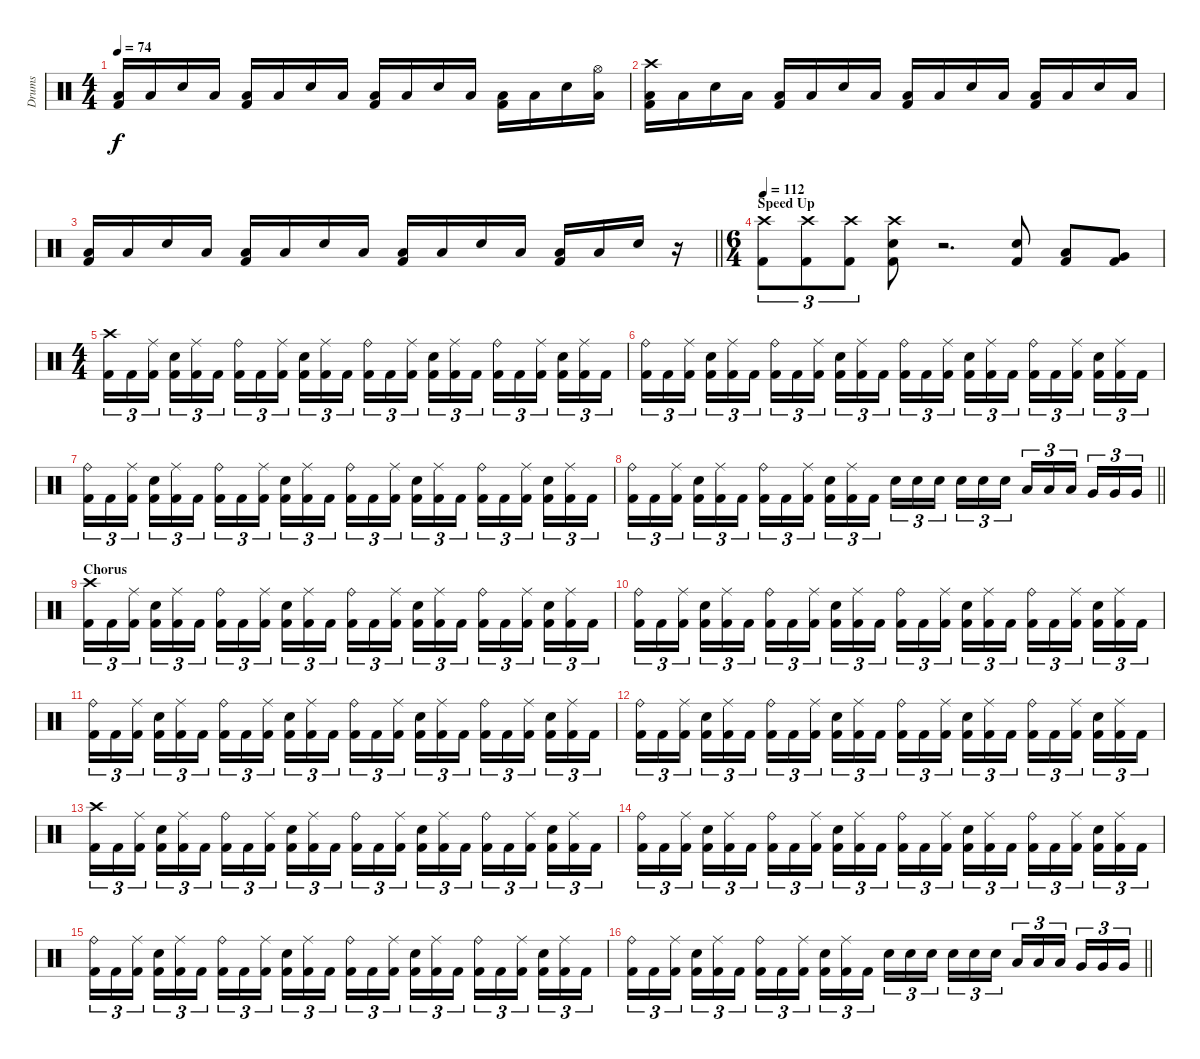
\track ("Drums" "Drums") {instrument percussion}
\staff {score}
\articulation defaults
\ts (4 4)
\tempo 74
\clef neutral
\ks c
("Low Floor Tom (hit)" "Kick (hit) 2").16{dy f} "Low Floor Tom (hit)".16 "Snare (hit) 2".16 "Low Floor Tom (hit)".16 ("Low Floor Tom (hit)" "Kick (hit) 2").16 "Low Floor Tom (hit)".16 "Snare (hit) 2".16 "Low Floor Tom (hit)".16 ("Low Floor Tom (hit)" "Kick (hit) 2").16 "Low Floor Tom (hit)".16 "Snare (hit) 2".16 "Low Floor Tom (hit)".16 ("Low Floor Tom (hit)" "Kick (hit) 2").16 "Low Floor Tom (hit)".16 "Snare (hit) 2".16 ("Hi-Hat (open)" "Low Floor Tom (hit)").16 |
("Crash high (hit)" "Low Floor Tom (hit)" "Kick (hit) 2").16 "Low Floor Tom (hit)".16 "Snare (hit) 2".16 "Low Floor Tom (hit)".16 ("Low Floor Tom (hit)" "Kick (hit) 2").16 "Low Floor Tom (hit)".16 "Snare (hit) 2".16 "Low Floor Tom (hit)".16 ("Low Floor Tom (hit)" "Kick (hit) 2").16 "Low Floor Tom (hit)".16 "Snare (hit) 2".16 "Low Floor Tom (hit)".16 ("Low Floor Tom (hit)" "Kick (hit) 2").16 "Low Floor Tom (hit)".16 "Snare (hit) 2".16 "Low Floor Tom (hit)".16 |
\barLineRight lightlight
("Low Floor Tom (hit)" "Kick (hit) 2").16 "Low Floor Tom (hit)".16 "Snare (hit) 2".16 "Low Floor Tom (hit)".16 ("Low Floor Tom (hit)" "Kick (hit) 2").16 "Low Floor Tom (hit)".16 "Snare (hit) 2".16 "Low Floor Tom (hit)".16 ("Low Floor Tom (hit)" "Kick (hit) 2").16 "Low Floor Tom (hit)".16 "Snare (hit) 2".16 "Low Floor Tom (hit)".16 ("Low Floor Tom (hit)" "Kick (hit) 2").16 "Low Floor Tom (hit)".16 "Snare (hit) 2".16 r.16 |
\ts (6 4)
\section ("" "Speed Up")
\tempo 112
("Crash high (hit)" "Kick (hit) 2").8{tu (3 2)} ("Crash high (hit)" "Kick (hit) 2").8{tu (3 2)} ("Crash high (hit)" "Kick (hit) 2").8{tu (3 2)} ("Crash high (hit)" "Snare (hit) 2" "Kick (hit) 2").8 r.2{d} ("Snare (hit) 2" "Kick (hit) 2").8 ("Low Tom (hit)" "Kick (hit) 2").8 ("Very Low Tom (hit)" "Kick (hit) 2").8 |
\ts (4 4)
("Crash high (hit)" "Kick (hit) 2").16{tu (3 2)} "Kick (hit) 2".16{tu (3 2)} ("Ride (middle)" "Kick (hit) 2").16{tu (3 2) beam splitsecondary} ("Snare (hit) 2" "Kick (hit) 2").16{tu (3 2)} ("Ride (middle)" "Kick (hit) 2").16{tu (3 2)} "Kick (hit) 2".16{tu (3 2)} ("Ride (bell)" "Kick (hit) 2").16{tu (3 2)} "Kick (hit) 2".16{tu (3 2)} ("Ride (middle)" "Kick (hit) 2").16{tu (3 2) beam splitsecondary} ("Snare (hit) 2" "Kick (hit) 2").16{tu (3 2)} ("Ride (middle)" "Kick (hit) 2").16{tu (3 2)} "Kick (hit) 2".16{tu (3 2)} ("Ride (bell)" "Kick (hit) 2").16{tu (3 2)} "Kick (hit) 2".16{tu (3 2)} ("Ride (middle)" "Kick (hit) 2").16{tu (3 2) beam splitsecondary} ("Snare (hit) 2" "Kick (hit) 2").16{tu (3 2)} ("Ride (middle)" "Kick (hit) 2").16{tu (3 2)} "Kick (hit) 2".16{tu (3 2)} ("Ride (bell)" "Kick (hit) 2").16{tu (3 2)} "Kick (hit) 2".16{tu (3 2)} ("Ride (middle)" "Kick (hit) 2").16{tu (3 2) beam splitsecondary} ("Snare (hit) 2" "Kick (hit) 2").16{tu (3 2)} ("Ride (middle)" "Kick (hit) 2").16{tu (3 2)} "Kick (hit) 2".16{tu (3 2)} |
("Ride (bell)" "Kick (hit) 2").16{tu (3 2)} "Kick (hit) 2".16{tu (3 2)} ("Ride (middle)" "Kick (hit) 2").16{tu (3 2) beam splitsecondary} ("Snare (hit) 2" "Kick (hit) 2").16{tu (3 2)} ("Ride (middle)" "Kick (hit) 2").16{tu (3 2)} "Kick (hit) 2".16{tu (3 2)} ("Ride (bell)" "Kick (hit) 2").16{tu (3 2)} "Kick (hit) 2".16{tu (3 2)} ("Ride (middle)" "Kick (hit) 2").16{tu (3 2) beam splitsecondary} ("Snare (hit) 2" "Kick (hit) 2").16{tu (3 2)} ("Ride (middle)" "Kick (hit) 2").16{tu (3 2)} "Kick (hit) 2".16{tu (3 2)} ("Ride (bell)" "Kick (hit) 2").16{tu (3 2)} "Kick (hit) 2".16{tu (3 2)} ("Ride (middle)" "Kick (hit) 2").16{tu (3 2) beam splitsecondary} ("Snare (hit) 2" "Kick (hit) 2").16{tu (3 2)} ("Ride (middle)" "Kick (hit) 2").16{tu (3 2)} "Kick (hit) 2".16{tu (3 2)} ("Ride (bell)" "Kick (hit) 2").16{tu (3 2)} "Kick (hit) 2".16{tu (3 2)} ("Ride (middle)" "Kick (hit) 2").16{tu (3 2) beam splitsecondary} ("Snare (hit) 2" "Kick (hit) 2").16{tu (3 2)} ("Ride (middle)" "Kick (hit) 2").16{tu (3 2)} "Kick (hit) 2".16{tu (3 2)} |
("Ride (bell)" "Kick (hit) 2").16{tu (3 2)} "Kick (hit) 2".16{tu (3 2)} ("Ride (middle)" "Kick (hit) 2").16{tu (3 2) beam splitsecondary} ("Snare (hit) 2" "Kick (hit) 2").16{tu (3 2)} ("Ride (middle)" "Kick (hit) 2").16{tu (3 2)} "Kick (hit) 2".16{tu (3 2)} ("Ride (bell)" "Kick (hit) 2").16{tu (3 2)} "Kick (hit) 2".16{tu (3 2)} ("Ride (middle)" "Kick (hit) 2").16{tu (3 2) beam splitsecondary} ("Snare (hit) 2" "Kick (hit) 2").16{tu (3 2)} ("Ride (middle)" "Kick (hit) 2").16{tu (3 2)} "Kick (hit) 2".16{tu (3 2)} ("Ride (bell)" "Kick (hit) 2").16{tu (3 2)} "Kick (hit) 2".16{tu (3 2)} ("Ride (middle)" "Kick (hit) 2").16{tu (3 2) beam splitsecondary} ("Snare (hit) 2" "Kick (hit) 2").16{tu (3 2)} ("Ride (middle)" "Kick (hit) 2").16{tu (3 2)} "Kick (hit) 2".16{tu (3 2)} ("Ride (bell)" "Kick (hit) 2").16{tu (3 2)} "Kick (hit) 2".16{tu (3 2)} ("Ride (middle)" "Kick (hit) 2").16{tu (3 2) beam splitsecondary} ("Snare (hit) 2" "Kick (hit) 2").16{tu (3 2)} ("Ride (middle)" "Kick (hit) 2").16{tu (3 2)} "Kick (hit) 2".16{tu (3 2)} |
\barLineRight lightlight
("Ride (bell)" "Kick (hit) 2").16{tu (3 2)} "Kick (hit) 2".16{tu (3 2)} ("Ride (middle)" "Kick (hit) 2").16{tu (3 2) beam splitsecondary} ("Snare (hit) 2" "Kick (hit) 2").16{tu (3 2)} ("Ride (middle)" "Kick (hit) 2").16{tu (3 2)} "Kick (hit) 2".16{tu (3 2)} ("Ride (bell)" "Kick (hit) 2").16{tu (3 2)} "Kick (hit) 2".16{tu (3 2)} ("Ride (middle)" "Kick (hit) 2").16{tu (3 2) beam splitsecondary} ("Snare (hit) 2" "Kick (hit) 2").16{tu (3 2)} ("Ride (middle)" "Kick (hit) 2").16{tu (3 2)} "Kick (hit) 2".16{tu (3 2)} "Snare (hit) 2".16{tu (3 2)} "Snare (hit) 2".16{tu (3 2)} "Snare (hit) 2".16{tu (3 2) beam splitsecondary} "Snare (hit) 2".16{tu (3 2)} "Snare (hit) 2".16{tu (3 2)} "Snare (hit) 2".16{tu (3 2)} "Low Tom (hit)".16{tu (3 2)} "Low Tom (hit)".16{tu (3 2)} "Low Tom (hit)".16{tu (3 2) beam splitsecondary} "Very Low Tom (hit)".16{tu (3 2)} "Very Low Tom (hit)".16{tu (3 2)} "Very Low Tom (hit)".16{tu (3 2)} |
\section ("" "Chorus")
("Crash high (hit)" "Kick (hit) 2").16{tu (3 2)} "Kick (hit) 2".16{tu (3 2)} ("Ride (middle)" "Kick (hit) 2").16{tu (3 2) beam splitsecondary} ("Snare (hit) 2" "Kick (hit) 2").16{tu (3 2)} ("Ride (middle)" "Kick (hit) 2").16{tu (3 2)} "Kick (hit) 2".16{tu (3 2)} ("Ride (bell)" "Kick (hit) 2").16{tu (3 2)} "Kick (hit) 2".16{tu (3 2)} ("Ride (middle)" "Kick (hit) 2").16{tu (3 2) beam splitsecondary} ("Snare (hit) 2" "Kick (hit) 2").16{tu (3 2)} ("Ride (middle)" "Kick (hit) 2").16{tu (3 2)} "Kick (hit) 2".16{tu (3 2)} ("Ride (bell)" "Kick (hit) 2").16{tu (3 2)} "Kick (hit) 2".16{tu (3 2)} ("Ride (middle)" "Kick (hit) 2").16{tu (3 2) beam splitsecondary} ("Snare (hit) 2" "Kick (hit) 2").16{tu (3 2)} ("Ride (middle)" "Kick (hit) 2").16{tu (3 2)} "Kick (hit) 2".16{tu (3 2)} ("Ride (bell)" "Kick (hit) 2").16{tu (3 2)} "Kick (hit) 2".16{tu (3 2)} ("Ride (middle)" "Kick (hit) 2").16{tu (3 2) beam splitsecondary} ("Snare (hit) 2" "Kick (hit) 2").16{tu (3 2)} ("Ride (middle)" "Kick (hit) 2").16{tu (3 2)} "Kick (hit) 2".16{tu (3 2)} |
("Ride (bell)" "Kick (hit) 2").16{tu (3 2)} "Kick (hit) 2".16{tu (3 2)} ("Ride (middle)" "Kick (hit) 2").16{tu (3 2) beam splitsecondary} ("Snare (hit) 2" "Kick (hit) 2").16{tu (3 2)} ("Ride (middle)" "Kick (hit) 2").16{tu (3 2)} "Kick (hit) 2".16{tu (3 2)} ("Ride (bell)" "Kick (hit) 2").16{tu (3 2)} "Kick (hit) 2".16{tu (3 2)} ("Ride (middle)" "Kick (hit) 2").16{tu (3 2) beam splitsecondary} ("Snare (hit) 2" "Kick (hit) 2").16{tu (3 2)} ("Ride (middle)" "Kick (hit) 2").16{tu (3 2)} "Kick (hit) 2".16{tu (3 2)} ("Ride (bell)" "Kick (hit) 2").16{tu (3 2)} "Kick (hit) 2".16{tu (3 2)} ("Ride (middle)" "Kick (hit) 2").16{tu (3 2) beam splitsecondary} ("Snare (hit) 2" "Kick (hit) 2").16{tu (3 2)} ("Ride (middle)" "Kick (hit) 2").16{tu (3 2)} "Kick (hit) 2".16{tu (3 2)} ("Ride (bell)" "Kick (hit) 2").16{tu (3 2)} "Kick (hit) 2".16{tu (3 2)} ("Ride (middle)" "Kick (hit) 2").16{tu (3 2) beam splitsecondary} ("Snare (hit) 2" "Kick (hit) 2").16{tu (3 2)} ("Ride (middle)" "Kick (hit) 2").16{tu (3 2)} "Kick (hit) 2".16{tu (3 2)} |
("Ride (bell)" "Kick (hit) 2").16{tu (3 2)} "Kick (hit) 2".16{tu (3 2)} ("Ride (middle)" "Kick (hit) 2").16{tu (3 2) beam splitsecondary} ("Snare (hit) 2" "Kick (hit) 2").16{tu (3 2)} ("Ride (middle)" "Kick (hit) 2").16{tu (3 2)} "Kick (hit) 2".16{tu (3 2)} ("Ride (bell)" "Kick (hit) 2").16{tu (3 2)} "Kick (hit) 2".16{tu (3 2)} ("Ride (middle)" "Kick (hit) 2").16{tu (3 2) beam splitsecondary} ("Snare (hit) 2" "Kick (hit) 2").16{tu (3 2)} ("Ride (middle)" "Kick (hit) 2").16{tu (3 2)} "Kick (hit) 2".16{tu (3 2)} ("Ride (bell)" "Kick (hit) 2").16{tu (3 2)} "Kick (hit) 2".16{tu (3 2)} ("Ride (middle)" "Kick (hit) 2").16{tu (3 2) beam splitsecondary} ("Snare (hit) 2" "Kick (hit) 2").16{tu (3 2)} ("Ride (middle)" "Kick (hit) 2").16{tu (3 2)} "Kick (hit) 2".16{tu (3 2)} ("Ride (bell)" "Kick (hit) 2").16{tu (3 2)} "Kick (hit) 2".16{tu (3 2)} ("Ride (middle)" "Kick (hit) 2").16{tu (3 2) beam splitsecondary} ("Snare (hit) 2" "Kick (hit) 2").16{tu (3 2)} ("Ride (middle)" "Kick (hit) 2").16{tu (3 2)} "Kick (hit) 2".16{tu (3 2)} |
("Ride (bell)" "Kick (hit) 2").16{tu (3 2)} "Kick (hit) 2".16{tu (3 2)} ("Ride (middle)" "Kick (hit) 2").16{tu (3 2) beam splitsecondary} ("Snare (hit) 2" "Kick (hit) 2").16{tu (3 2)} ("Ride (middle)" "Kick (hit) 2").16{tu (3 2)} "Kick (hit) 2".16{tu (3 2)} ("Ride (bell)" "Kick (hit) 2").16{tu (3 2)} "Kick (hit) 2".16{tu (3 2)} ("Ride (middle)" "Kick (hit) 2").16{tu (3 2) beam splitsecondary} ("Snare (hit) 2" "Kick (hit) 2").16{tu (3 2)} ("Ride (middle)" "Kick (hit) 2").16{tu (3 2)} "Kick (hit) 2".16{tu (3 2)} ("Ride (bell)" "Kick (hit) 2").16{tu (3 2)} "Kick (hit) 2".16{tu (3 2)} ("Ride (middle)" "Kick (hit) 2").16{tu (3 2) beam splitsecondary} ("Snare (hit) 2" "Kick (hit) 2").16{tu (3 2)} ("Ride (middle)" "Kick (hit) 2").16{tu (3 2)} "Kick (hit) 2".16{tu (3 2)} ("Ride (bell)" "Kick (hit) 2").16{tu (3 2)} "Kick (hit) 2".16{tu (3 2)} ("Ride (middle)" "Kick (hit) 2").16{tu (3 2) beam splitsecondary} ("Snare (hit) 2" "Kick (hit) 2").16{tu (3 2)} ("Ride (middle)" "Kick (hit) 2").16{tu (3 2)} "Kick (hit) 2".16{tu (3 2)} |
("Crash high (hit)" "Kick (hit) 2").16{tu (3 2)} "Kick (hit) 2".16{tu (3 2)} ("Ride (middle)" "Kick (hit) 2").16{tu (3 2) beam splitsecondary} ("Snare (hit) 2" "Kick (hit) 2").16{tu (3 2)} ("Ride (middle)" "Kick (hit) 2").16{tu (3 2)} "Kick (hit) 2".16{tu (3 2)} ("Ride (bell)" "Kick (hit) 2").16{tu (3 2)} "Kick (hit) 2".16{tu (3 2)} ("Ride (middle)" "Kick (hit) 2").16{tu (3 2) beam splitsecondary} ("Snare (hit) 2" "Kick (hit) 2").16{tu (3 2)} ("Ride (middle)" "Kick (hit) 2").16{tu (3 2)} "Kick (hit) 2".16{tu (3 2)} ("Ride (bell)" "Kick (hit) 2").16{tu (3 2)} "Kick (hit) 2".16{tu (3 2)} ("Ride (middle)" "Kick (hit) 2").16{tu (3 2) beam splitsecondary} ("Snare (hit) 2" "Kick (hit) 2").16{tu (3 2)} ("Ride (middle)" "Kick (hit) 2").16{tu (3 2)} "Kick (hit) 2".16{tu (3 2)} ("Ride (bell)" "Kick (hit) 2").16{tu (3 2)} "Kick (hit) 2".16{tu (3 2)} ("Ride (middle)" "Kick (hit) 2").16{tu (3 2) beam splitsecondary} ("Snare (hit) 2" "Kick (hit) 2").16{tu (3 2)} ("Ride (middle)" "Kick (hit) 2").16{tu (3 2)} "Kick (hit) 2".16{tu (3 2)} |
("Ride (bell)" "Kick (hit) 2").16{tu (3 2)} "Kick (hit) 2".16{tu (3 2)} ("Ride (middle)" "Kick (hit) 2").16{tu (3 2) beam splitsecondary} ("Snare (hit) 2" "Kick (hit) 2").16{tu (3 2)} ("Ride (middle)" "Kick (hit) 2").16{tu (3 2)} "Kick (hit) 2".16{tu (3 2)} ("Ride (bell)" "Kick (hit) 2").16{tu (3 2)} "Kick (hit) 2".16{tu (3 2)} ("Ride (middle)" "Kick (hit) 2").16{tu (3 2) beam splitsecondary} ("Snare (hit) 2" "Kick (hit) 2").16{tu (3 2)} ("Ride (middle)" "Kick (hit) 2").16{tu (3 2)} "Kick (hit) 2".16{tu (3 2)} ("Ride (bell)" "Kick (hit) 2").16{tu (3 2)} "Kick (hit) 2".16{tu (3 2)} ("Ride (middle)" "Kick (hit) 2").16{tu (3 2) beam splitsecondary} ("Snare (hit) 2" "Kick (hit) 2").16{tu (3 2)} ("Ride (middle)" "Kick (hit) 2").16{tu (3 2)} "Kick (hit) 2".16{tu (3 2)} ("Ride (bell)" "Kick (hit) 2").16{tu (3 2)} "Kick (hit) 2".16{tu (3 2)} ("Ride (middle)" "Kick (hit) 2").16{tu (3 2) beam splitsecondary} ("Snare (hit) 2" "Kick (hit) 2").16{tu (3 2)} ("Ride (middle)" "Kick (hit) 2").16{tu (3 2)} "Kick (hit) 2".16{tu (3 2)} |
("Ride (bell)" "Kick (hit) 2").16{tu (3 2)} "Kick (hit) 2".16{tu (3 2)} ("Ride (middle)" "Kick (hit) 2").16{tu (3 2) beam splitsecondary} ("Snare (hit) 2" "Kick (hit) 2").16{tu (3 2)} ("Ride (middle)" "Kick (hit) 2").16{tu (3 2)} "Kick (hit) 2".16{tu (3 2)} ("Ride (bell)" "Kick (hit) 2").16{tu (3 2)} "Kick (hit) 2".16{tu (3 2)} ("Ride (middle)" "Kick (hit) 2").16{tu (3 2) beam splitsecondary} ("Snare (hit) 2" "Kick (hit) 2").16{tu (3 2)} ("Ride (middle)" "Kick (hit) 2").16{tu (3 2)} "Kick (hit) 2".16{tu (3 2)} ("Ride (bell)" "Kick (hit) 2").16{tu (3 2)} "Kick (hit) 2".16{tu (3 2)} ("Ride (middle)" "Kick (hit) 2").16{tu (3 2) beam splitsecondary} ("Snare (hit) 2" "Kick (hit) 2").16{tu (3 2)} ("Ride (middle)" "Kick (hit) 2").16{tu (3 2)} "Kick (hit) 2".16{tu (3 2)} ("Ride (bell)" "Kick (hit) 2").16{tu (3 2)} "Kick (hit) 2".16{tu (3 2)} ("Ride (middle)" "Kick (hit) 2").16{tu (3 2) beam splitsecondary} ("Snare (hit) 2" "Kick (hit) 2").16{tu (3 2)} ("Ride (middle)" "Kick (hit) 2").16{tu (3 2)} "Kick (hit) 2".16{tu (3 2)} |
\barLineRight lightlight
("Ride (bell)" "Kick (hit) 2").16{tu (3 2)} "Kick (hit) 2".16{tu (3 2)} ("Ride (middle)" "Kick (hit) 2").16{tu (3 2) beam splitsecondary} ("Snare (hit) 2" "Kick (hit) 2").16{tu (3 2)} ("Ride (middle)" "Kick (hit) 2").16{tu (3 2)} "Kick (hit) 2".16{tu (3 2)} ("Ride (bell)" "Kick (hit) 2").16{tu (3 2)} "Kick (hit) 2".16{tu (3 2)} ("Ride (middle)" "Kick (hit) 2").16{tu (3 2) beam splitsecondary} ("Snare (hit) 2" "Kick (hit) 2").16{tu (3 2)} ("Ride (middle)" "Kick (hit) 2").16{tu (3 2)} "Kick (hit) 2".16{tu (3 2)} "Snare (hit) 2".16{tu (3 2)} "Snare (hit) 2".16{tu (3 2)} "Snare (hit) 2".16{tu (3 2) beam splitsecondary} "Snare (hit) 2".16{tu (3 2)} "Snare (hit) 2".16{tu (3 2)} "Snare (hit) 2".16{tu (3 2)} "Low Tom (hit)".16{tu (3 2)} "Low Tom (hit)".16{tu (3 2)} "Low Tom (hit)".16{tu (3 2) beam splitsecondary} "Very Low Tom (hit)".16{tu (3 2)} "Very Low Tom (hit)".16{tu (3 2)} "Very Low Tom (hit)".16{tu (3 2)}
